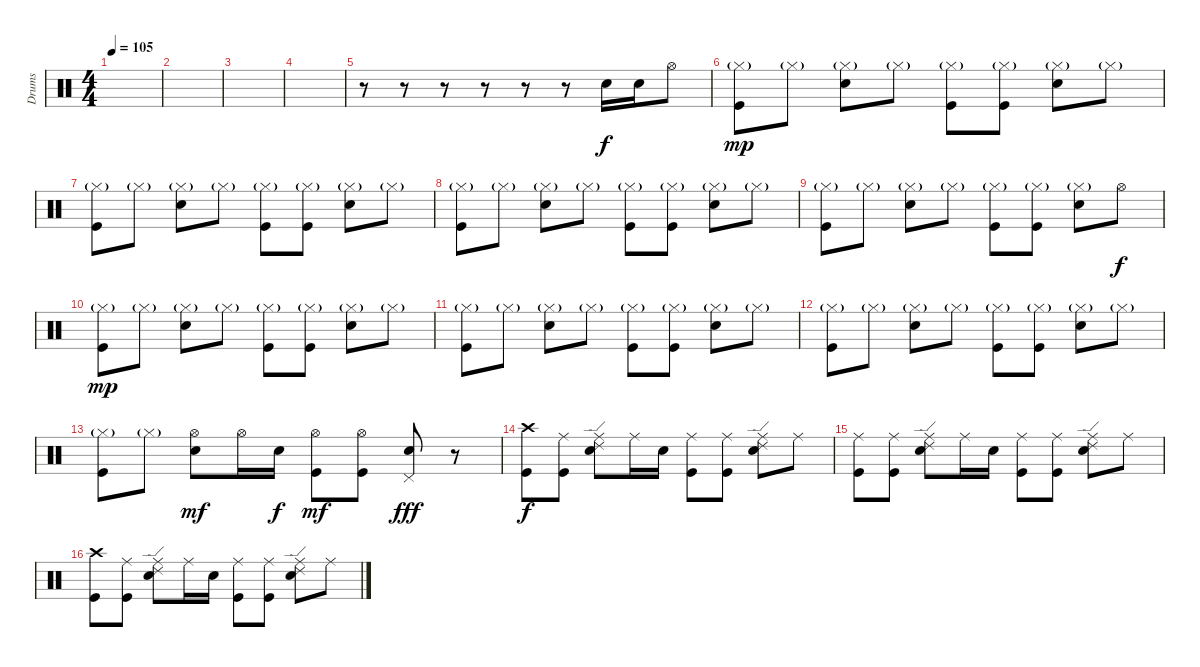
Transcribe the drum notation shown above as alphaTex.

\track ("Drums" "Drums") {instrument percussion}
\staff {score}
\articulation defaults
\ts (4 4)
\tempo 105
\clef neutral
\ks c
|
|
|
|
r.8 r.8 r.8 r.8 r.8 r.8 "Snare (hit) 2".16 "Snare (hit) 2".16 "Hi-Hat (open)".8 |
("Hi-Hat (closed)"{g} "Kick (hit)").8{dy mp} "Hi-Hat (closed)"{g}.8 ("Hi-Hat (closed)"{g} "Snare (hit) 2").8 "Hi-Hat (closed)"{g}.8 ("Hi-Hat (closed)"{g} "Kick (hit)").8 ("Hi-Hat (closed)"{g} "Kick (hit)").8 ("Hi-Hat (closed)"{g} "Snare (hit) 2").8 "Hi-Hat (closed)"{g}.8 |
("Hi-Hat (closed)"{g} "Kick (hit)").8 "Hi-Hat (closed)"{g}.8 ("Hi-Hat (closed)"{g} "Snare (hit) 2").8 "Hi-Hat (closed)"{g}.8 ("Hi-Hat (closed)"{g} "Kick (hit)").8 ("Hi-Hat (closed)"{g} "Kick (hit)").8 ("Hi-Hat (closed)"{g} "Snare (hit) 2").8 "Hi-Hat (closed)"{g}.8 |
("Hi-Hat (closed)"{g} "Kick (hit)").8 "Hi-Hat (closed)"{g}.8 ("Hi-Hat (closed)"{g} "Snare (hit) 2").8 "Hi-Hat (closed)"{g}.8 ("Hi-Hat (closed)"{g} "Kick (hit)").8 ("Hi-Hat (closed)"{g} "Kick (hit)").8 ("Hi-Hat (closed)"{g} "Snare (hit) 2").8 "Hi-Hat (closed)"{g}.8 |
("Hi-Hat (closed)"{g} "Kick (hit)").8 "Hi-Hat (closed)"{g}.8 ("Hi-Hat (closed)"{g} "Snare (hit) 2").8 "Hi-Hat (closed)"{g}.8 ("Hi-Hat (closed)"{g} "Kick (hit)").8 ("Hi-Hat (closed)"{g} "Kick (hit)").8 ("Hi-Hat (closed)"{g} "Snare (hit) 2").8 "Hi-Hat (open)".8{dy f} |
("Hi-Hat (closed)"{g} "Kick (hit)").8{dy mp} "Hi-Hat (closed)"{g}.8 ("Hi-Hat (closed)"{g} "Snare (hit) 2").8 "Hi-Hat (closed)"{g}.8 ("Hi-Hat (closed)"{g} "Kick (hit)").8 ("Hi-Hat (closed)"{g} "Kick (hit)").8 ("Hi-Hat (closed)"{g} "Snare (hit) 2").8 "Hi-Hat (closed)"{g}.8 |
("Hi-Hat (closed)"{g} "Kick (hit)").8 "Hi-Hat (closed)"{g}.8 ("Hi-Hat (closed)"{g} "Snare (hit) 2").8 "Hi-Hat (closed)"{g}.8 ("Hi-Hat (closed)"{g} "Kick (hit)").8 ("Hi-Hat (closed)"{g} "Kick (hit)").8 ("Hi-Hat (closed)"{g} "Snare (hit) 2").8 "Hi-Hat (closed)"{g}.8 |
("Hi-Hat (closed)"{g} "Kick (hit)").8 "Hi-Hat (closed)"{g}.8 ("Hi-Hat (closed)"{g} "Snare (hit) 2").8 "Hi-Hat (closed)"{g}.8 ("Hi-Hat (closed)"{g} "Kick (hit)").8 ("Hi-Hat (closed)"{g} "Kick (hit)").8 ("Hi-Hat (closed)"{g} "Snare (hit) 2").8 "Hi-Hat (closed)"{g}.8 |
("Hi-Hat (closed)"{g} "Kick (hit)").8 "Hi-Hat (closed)"{g}.8 ("Hi-Hat (open)" "Snare (hit) 2").8{dy mf} "Hi-Hat (open)".16 "Snare (hit) 2".16{dy f} ("Hi-Hat (open)" "Kick (hit)").8{dy mf} ("Hi-Hat (open)" "Kick (hit)").8 ("Pedal Hi-Hat (hit)" "Snare (hit) 2").8{dy fff} r.8 |
("Crash high (hit)" "Kick (hit)").8{dy f} ("Ride (middle)" "Kick (hit)").8 ("Ride (middle)" "Ride (edge) 2" "Snare (hit) 2").8 "Ride (middle)".16 "Snare (hit) 2".16 ("Ride (middle)" "Kick (hit)").8 ("Ride (middle)" "Kick (hit)").8 ("Ride (middle)" "Ride (edge) 2" "Snare (hit) 2").8 "Ride (middle)".8 |
("Ride (middle)" "Kick (hit)").8 ("Ride (middle)" "Kick (hit)").8 ("Ride (middle)" "Ride (edge) 2" "Snare (hit) 2").8 "Ride (middle)".16 "Snare (hit) 2".16 ("Ride (middle)" "Kick (hit)").8 ("Ride (middle)" "Kick (hit)").8 ("Ride (middle)" "Ride (edge) 2" "Snare (hit) 2").8 "Ride (middle)".8 |
("Crash high (hit)" "Kick (hit)").8 ("Ride (middle)" "Kick (hit)").8 ("Ride (middle)" "Ride (edge) 2" "Snare (hit) 2").8 "Ride (middle)".16 "Snare (hit) 2".16 ("Ride (middle)" "Kick (hit)").8 ("Ride (middle)" "Kick (hit)").8 ("Ride (middle)" "Ride (edge) 2" "Snare (hit) 2").8 "Ride (middle)".8
